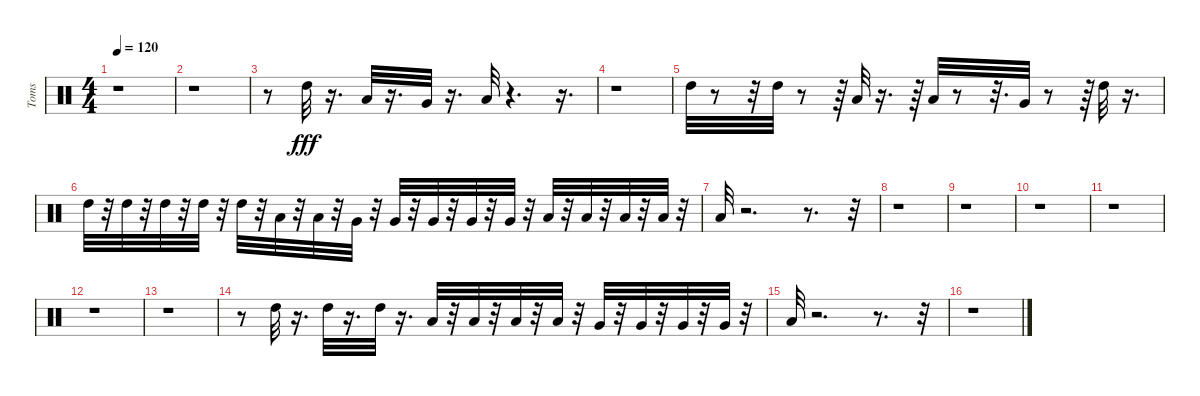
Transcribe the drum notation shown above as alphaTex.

\track ("Toms" "Toms") {instrument percussion}
\staff {score}
\articulation defaults
\ts (4 4)
\tempo 120
\clef neutral
\ks c
r.1{dy fff} |
r.1 |
r.8 "High Tom (hit)".32 r.16{d} "Low Tom (hit)".32 r.16{d} "Very Low Tom (hit)".32 r.16{d} "Low Floor Tom (hit)".32 r.4{d} r.16{d} |
r.1 |
"High Tom (hit)".32 r.8 r.32 "High Tom (hit)".32 r.8 r.64 "Low Tom (hit)".32 r.16{d} r.64 "Low Tom (hit)".32 r.8 r.32{d} "Very Low Tom (hit)".32 r.8 r.64 "High Tom (hit)".32 r.16{d} |
"High Tom (hit)".32 r.32 "High Tom (hit)".32 r.32 "High Tom (hit)".32 r.32 "High Tom (hit)".32 r.32 "High Tom (hit)".32 r.32 "Low Tom (hit)".32 r.32 "Low Tom (hit)".32 r.32 "Very Low Tom (hit)".32 r.32 "Very Low Tom (hit)".32 r.32 "Very Low Tom (hit)".32 r.32 "Very Low Tom (hit)".32 r.32 "Very Low Tom (hit)".32 r.32 "Low Floor Tom (hit)".32 r.32 "Low Floor Tom (hit)".32 r.32 "Low Floor Tom (hit)".32 r.32 "Low Floor Tom (hit)".32 r.32 |
"Low Floor Tom (hit)".32 r.2{d} r.8{d} r.32 |
r.1 |
r.1 |
r.1 |
r.1 |
r.1 |
r.1 |
r.8 "High Tom (hit)".32 r.16{d} "High Tom (hit)".32 r.16{d} "High Tom (hit)".32 r.16{d} "Low Tom (hit)".32 r.32 "Low Tom (hit)".32 r.32 "Low Tom (hit)".32 r.32 "Low Tom (hit)".32 r.32 "Very Low Tom (hit)".32 r.32 "Very Low Tom (hit)".32 r.32 "Very Low Tom (hit)".32 r.32 "Very Low Tom (hit)".32 r.32 |
"Low Floor Tom (hit)".32 r.2{d} r.8{d} r.32 |
r.1
